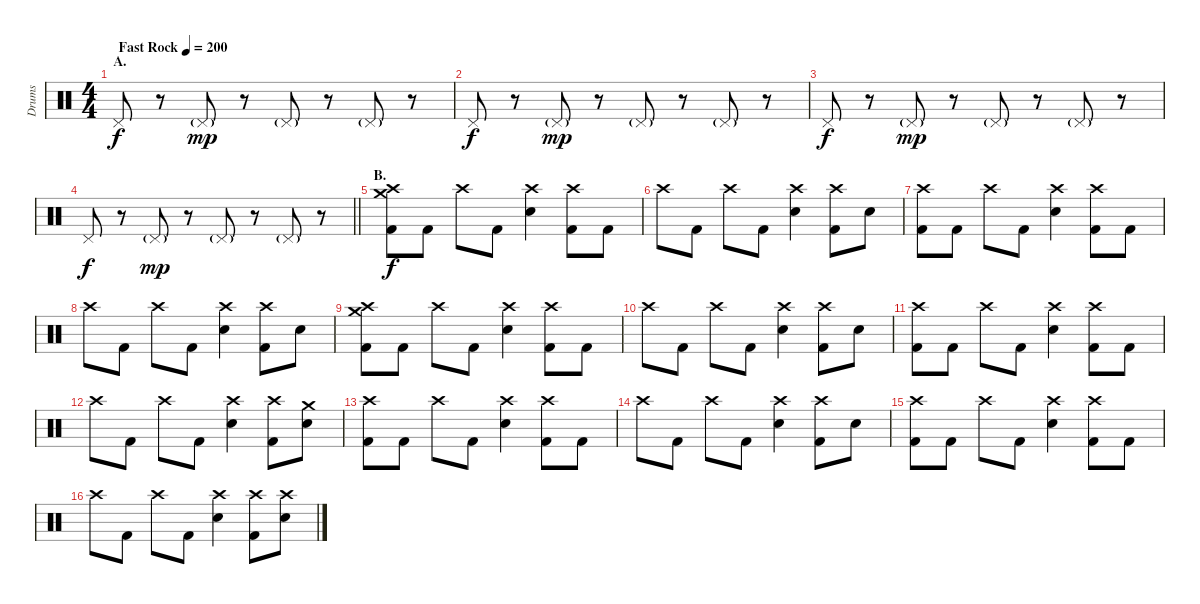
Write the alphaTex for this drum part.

\track ("Drums" "Drums") {instrument percussion}
\staff {score}
\articulation defaults
\ts (4 4)
\section ("" "A.")
\tempo (200 "Fast Rock")
\clef neutral
\ks c "Pedal Hi-Hat (hit)".8{dy f}
r.8 "Pedal Hi-Hat (hit)"{g}.8{dy mp} r.8 "Pedal Hi-Hat (hit)"{g}.8 r.8 "Pedal Hi-Hat (hit)"{g}.8 r.8 |
"Pedal Hi-Hat (hit)".8{dy f} r.8 "Pedal Hi-Hat (hit)"{g}.8{dy mp} r.8 "Pedal Hi-Hat (hit)"{g}.8 r.8 "Pedal Hi-Hat (hit)"{g}.8 r.8 |
"Pedal Hi-Hat (hit)".8{dy f} r.8 "Pedal Hi-Hat (hit)"{g}.8{dy mp} r.8 "Pedal Hi-Hat (hit)"{g}.8 r.8 "Pedal Hi-Hat (hit)"{g}.8 r.8 |
\barLineRight lightlight "Pedal Hi-Hat (hit)".8{dy f}
r.8 "Pedal Hi-Hat (hit)"{g}.8{dy mp} r.8 "Pedal Hi-Hat (hit)"{g}.8 r.8 "Pedal Hi-Hat (hit)"{g}.8 r.8 |
\section ("" "B.")
("Crash medium (hit)" "Crash high (hit)" "Kick (hit) 2").8{dy f} "Kick (hit) 2".8 "Crash high (hit)".8 "Kick (hit) 2".8 ("Crash high (hit)" "Electric Snare (hit)").4 ("Crash high (hit)" "Kick (hit) 2").8 "Kick (hit) 2".8 |
"Crash high (hit)".8 "Kick (hit) 2".8 "Crash high (hit)".8 "Kick (hit) 2".8 ("Crash high (hit)" "Electric Snare (hit)").4 ("Crash high (hit)" "Kick (hit) 2").8 "Electric Snare (hit)".8 |
("Crash high (hit)" "Kick (hit) 2").8 "Kick (hit) 2".8 "Crash high (hit)".8 "Kick (hit) 2".8 ("Crash high (hit)" "Electric Snare (hit)").4 ("Crash high (hit)" "Kick (hit) 2").8 "Kick (hit) 2".8 |
"Crash high (hit)".8 "Kick (hit) 2".8 "Crash high (hit)".8 "Kick (hit) 2".8 ("Crash high (hit)" "Electric Snare (hit)").4 ("Crash high (hit)" "Kick (hit) 2").8 "Electric Snare (hit)".8 |
("Crash medium (hit)" "Crash high (hit)" "Kick (hit) 2").8 "Kick (hit) 2".8 "Crash high (hit)".8 "Kick (hit) 2".8 ("Crash high (hit)" "Electric Snare (hit)").4 ("Crash high (hit)" "Kick (hit) 2").8 "Kick (hit) 2".8 |
"Crash high (hit)".8 "Kick (hit) 2".8 "Crash high (hit)".8 "Kick (hit) 2".8 ("Crash high (hit)" "Electric Snare (hit)").4 ("Crash high (hit)" "Kick (hit) 2").8 "Electric Snare (hit)".8 |
("Crash high (hit)" "Kick (hit) 2").8 "Kick (hit) 2".8 "Crash high (hit)".8 "Kick (hit) 2".8 ("Crash high (hit)" "Electric Snare (hit)").4 ("Crash high (hit)" "Kick (hit) 2").8 "Kick (hit) 2".8 |
"Crash high (hit)".8 "Kick (hit) 2".8 "Crash high (hit)".8 "Kick (hit) 2".8 ("Crash high (hit)" "Electric Snare (hit)").4 ("Crash high (hit)" "Kick (hit) 2").8 ("Crash medium (hit)" "Electric Snare (hit)").8 |
("Crash high (hit)" "Kick (hit) 2").8 "Kick (hit) 2".8 "Crash high (hit)".8 "Kick (hit) 2".8 ("Crash high (hit)" "Electric Snare (hit)").4 ("Crash high (hit)" "Kick (hit) 2").8 "Kick (hit) 2".8 |
"Crash high (hit)".8 "Kick (hit) 2".8 "Crash high (hit)".8 "Kick (hit) 2".8 ("Crash high (hit)" "Electric Snare (hit)").4 ("Crash high (hit)" "Kick (hit) 2").8 "Electric Snare (hit)".8 |
("Crash high (hit)" "Kick (hit) 2").8 "Kick (hit) 2".8 "Crash high (hit)".8 "Kick (hit) 2".8 ("Crash high (hit)" "Electric Snare (hit)").4 ("Crash high (hit)" "Kick (hit) 2").8 "Kick (hit) 2".8 |
"Crash high (hit)".8 "Kick (hit) 2".8 "Crash high (hit)".8 "Kick (hit) 2".8 ("Crash high (hit)" "Electric Snare (hit)").4 ("Crash high (hit)" "Kick (hit) 2").8 ("Crash high (hit)" "Electric Snare (hit)").8
